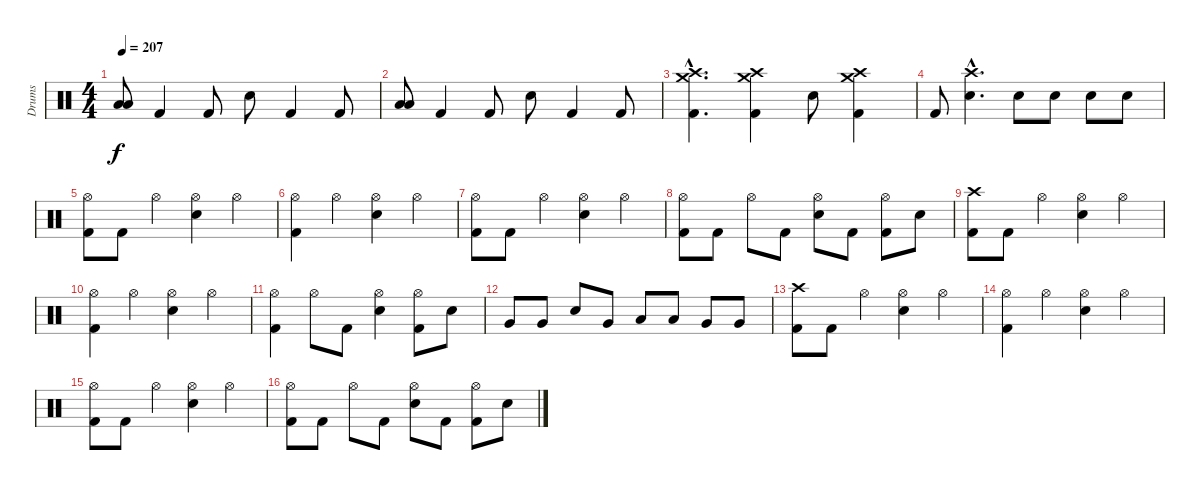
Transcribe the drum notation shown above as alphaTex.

\track ("Drums" "Drums") {instrument percussion}
\staff {score}
\articulation defaults
\ts (4 4)
\tempo 207
\clef neutral
\ks c
("Low Tom (hit)" "Low Floor Tom (hit)").8{dy f} "Kick (hit) 2".4 "Kick (hit) 2".8 "Electric Snare (hit)".8 "Kick (hit) 2".4 "Kick (hit) 2".8 |
("Low Tom (hit)" "Low Floor Tom (hit)").8 "Kick (hit) 2".4 "Kick (hit) 2".8 "Electric Snare (hit)".8 "Kick (hit) 2".4 "Kick (hit) 2".8 |
("Crash high (hit)"{hac} "Crash medium (hit)"{hac} "Kick (hit) 2"{hac}).4{d} ("Crash high (hit)" "Crash medium (hit)" "Kick (hit) 2").4 "Electric Snare (hit)".8 ("Crash high (hit)" "Crash medium (hit)" "Kick (hit) 2").4 |
"Kick (hit) 2".8 ("Crash high (hit)"{hac} "Electric Snare (hit)"{hac}).4{d} "Electric Snare (hit)".8 "Electric Snare (hit)".8 "Electric Snare (hit)".8 "Electric Snare (hit)".8 |
("Hi-Hat (open)" "Kick (hit) 2").8 "Kick (hit) 2".8 "Hi-Hat (open)".4 ("Hi-Hat (open)" "Electric Snare (hit)").4 "Hi-Hat (open)".4 |
("Hi-Hat (open)" "Kick (hit) 2").4 "Hi-Hat (open)".4 ("Hi-Hat (open)" "Electric Snare (hit)").4 "Hi-Hat (open)".4 |
("Hi-Hat (open)" "Kick (hit) 2").8 "Kick (hit) 2".8 "Hi-Hat (open)".4 ("Hi-Hat (open)" "Electric Snare (hit)").4 "Hi-Hat (open)".4 |
("Hi-Hat (open)" "Kick (hit) 2").8 "Kick (hit) 2".8 "Hi-Hat (open)".8 "Kick (hit) 2".8 ("Hi-Hat (open)" "Electric Snare (hit)").8 "Kick (hit) 2".8 ("Hi-Hat (open)" "Kick (hit) 2").8 "Electric Snare (hit)".8 |
("Crash high (hit)" "Kick (hit) 2").8 "Kick (hit) 2".8 "Hi-Hat (open)".4 ("Hi-Hat (open)" "Electric Snare (hit)").4 "Hi-Hat (open)".4 |
("Hi-Hat (open)" "Kick (hit) 2").4 "Hi-Hat (open)".4 ("Hi-Hat (open)" "Electric Snare (hit)").4 "Hi-Hat (open)".4 |
("Hi-Hat (open)" "Kick (hit) 2").4 "Hi-Hat (open)".8 "Kick (hit) 2".8 ("Hi-Hat (open)" "Electric Snare (hit)").4 ("Hi-Hat (open)" "Kick (hit) 2").8 "Electric Snare (hit)".8 |
"Very Low Tom (hit)".8 "Very Low Tom (hit)".8 "Electric Snare (hit)".8 "Very Low Tom (hit)".8 "Low Floor Tom (hit)".8 "Low Floor Tom (hit)".8 "Very Low Tom (hit)".8 "Very Low Tom (hit)".8 |
("Crash high (hit)" "Kick (hit) 2").8 "Kick (hit) 2".8 "Hi-Hat (open)".4 ("Hi-Hat (open)" "Electric Snare (hit)").4 "Hi-Hat (open)".4 |
("Hi-Hat (open)" "Kick (hit) 2").4 "Hi-Hat (open)".4 ("Hi-Hat (open)" "Electric Snare (hit)").4 "Hi-Hat (open)".4 |
("Hi-Hat (open)" "Kick (hit) 2").8 "Kick (hit) 2".8 "Hi-Hat (open)".4 ("Hi-Hat (open)" "Electric Snare (hit)").4 "Hi-Hat (open)".4 |
("Hi-Hat (open)" "Kick (hit) 2").8 "Kick (hit) 2".8 "Hi-Hat (open)".8 "Kick (hit) 2".8 ("Hi-Hat (open)" "Electric Snare (hit)").8 "Kick (hit) 2".8 ("Hi-Hat (open)" "Kick (hit) 2").8 "Electric Snare (hit)".8
